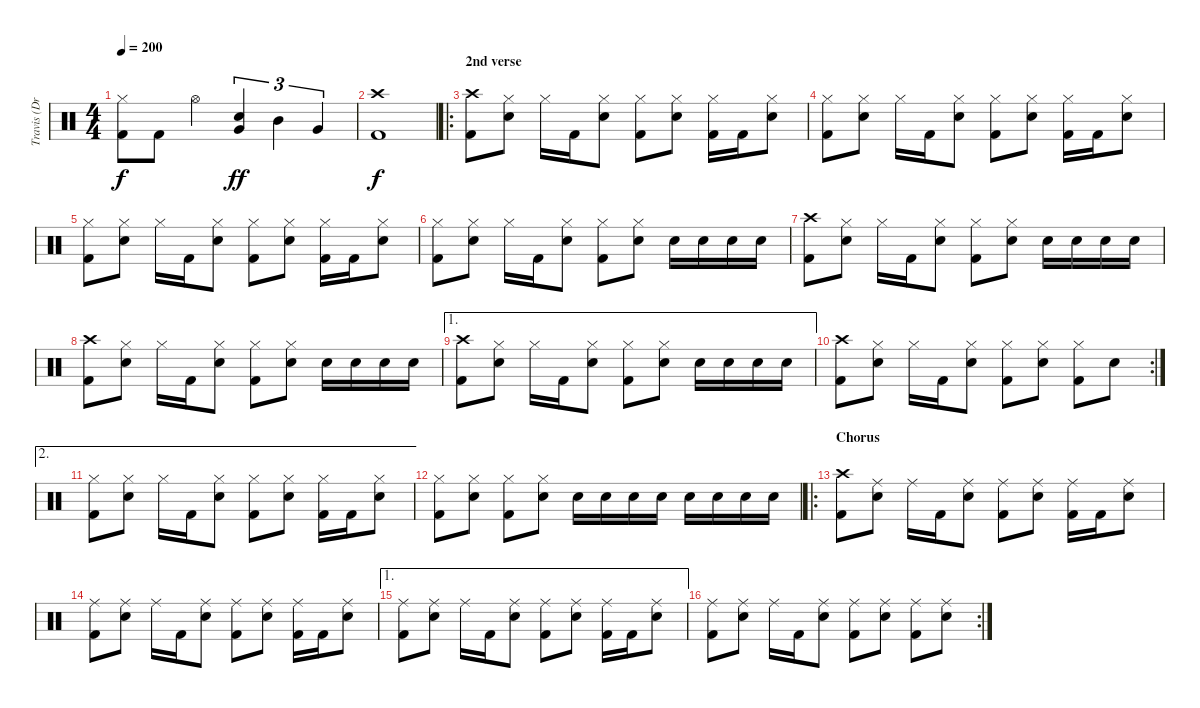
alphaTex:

\track ("Travis (Drums)" "Travis (Dr") {instrument percussion}
\staff {score}
\articulation defaults
\ts (4 4)
\tempo 200
\clef neutral
\ks c
("Hi-Hat (closed)" "Kick (hit) 2").8{dy f} "Kick (hit) 2".8 "Hi-Hat (open)".4 ("Very Low Tom (hit)" "Electric Snare (hit)").4{tu (3 2) dy ff} "Mid Tom (hit)".4{tu (3 2)} "Very Low Tom (hit)".4{tu (3 2)} |
("Crash high (hit)" "Kick (hit) 2").1{dy f} |
\ro
\section ("" "2nd verse")
("Crash high (hit)" "Kick (hit) 2").8 ("Hi-Hat (closed)" "Electric Snare (hit)").8 "Hi-Hat (closed)".16 "Kick (hit) 2".16 ("Hi-Hat (closed)" "Electric Snare (hit)").8 ("Hi-Hat (closed)" "Kick (hit) 2").8 ("Hi-Hat (closed)" "Electric Snare (hit)").8 ("Hi-Hat (closed)" "Kick (hit) 2").16 "Kick (hit) 2".16 ("Hi-Hat (closed)" "Electric Snare (hit)").8 |
("Hi-Hat (closed)" "Kick (hit) 2").8 ("Hi-Hat (closed)" "Electric Snare (hit)").8 "Hi-Hat (closed)".16 "Kick (hit) 2".16 ("Hi-Hat (closed)" "Electric Snare (hit)").8 ("Hi-Hat (closed)" "Kick (hit) 2").8 ("Hi-Hat (closed)" "Electric Snare (hit)").8 ("Hi-Hat (closed)" "Kick (hit) 2").16 "Kick (hit) 2".16 ("Hi-Hat (closed)" "Electric Snare (hit)").8 |
("Hi-Hat (closed)" "Kick (hit) 2").8 ("Hi-Hat (closed)" "Electric Snare (hit)").8 "Hi-Hat (closed)".16 "Kick (hit) 2".16 ("Hi-Hat (closed)" "Electric Snare (hit)").8 ("Hi-Hat (closed)" "Kick (hit) 2").8 ("Hi-Hat (closed)" "Electric Snare (hit)").8 ("Hi-Hat (closed)" "Kick (hit) 2").16 "Kick (hit) 2".16 ("Hi-Hat (closed)" "Electric Snare (hit)").8 |
("Hi-Hat (closed)" "Kick (hit) 2").8 ("Hi-Hat (closed)" "Electric Snare (hit)").8 "Hi-Hat (closed)".16 "Kick (hit) 2".16 ("Hi-Hat (closed)" "Electric Snare (hit)").8 ("Hi-Hat (closed)" "Kick (hit) 2").8 ("Hi-Hat (closed)" "Electric Snare (hit)").8 "Electric Snare (hit)".16 "Electric Snare (hit)".16 "Electric Snare (hit)".16 "Electric Snare (hit)".16 |
("Crash high (hit)" "Kick (hit) 2").8 ("Hi-Hat (closed)" "Electric Snare (hit)").8 "Hi-Hat (closed)".16 "Kick (hit) 2".16 ("Hi-Hat (closed)" "Electric Snare (hit)").8 ("Hi-Hat (closed)" "Kick (hit) 2").8 ("Hi-Hat (closed)" "Electric Snare (hit)").8 "Electric Snare (hit)".16 "Electric Snare (hit)".16 "Electric Snare (hit)".16 "Electric Snare (hit)".16 |
("Crash high (hit)" "Kick (hit) 2").8 ("Hi-Hat (closed)" "Electric Snare (hit)").8 "Hi-Hat (closed)".16 "Kick (hit) 2".16 ("Hi-Hat (closed)" "Electric Snare (hit)").8 ("Hi-Hat (closed)" "Kick (hit) 2").8 ("Hi-Hat (closed)" "Electric Snare (hit)").8 "Electric Snare (hit)".16 "Electric Snare (hit)".16 "Electric Snare (hit)".16 "Electric Snare (hit)".16 |
\ae 1
("Crash high (hit)" "Kick (hit) 2").8 ("Hi-Hat (closed)" "Electric Snare (hit)").8 "Hi-Hat (closed)".16 "Kick (hit) 2".16 ("Hi-Hat (closed)" "Electric Snare (hit)").8 ("Hi-Hat (closed)" "Kick (hit) 2").8 ("Hi-Hat (closed)" "Electric Snare (hit)").8 "Electric Snare (hit)".16 "Electric Snare (hit)".16 "Electric Snare (hit)".16 "Electric Snare (hit)".16 |
\rc 2
("Crash high (hit)" "Kick (hit) 2").8 ("Hi-Hat (closed)" "Electric Snare (hit)").8 "Hi-Hat (closed)".16 "Kick (hit) 2".16 ("Hi-Hat (closed)" "Electric Snare (hit)").8 ("Hi-Hat (closed)" "Kick (hit) 2").8 ("Hi-Hat (closed)" "Electric Snare (hit)").8 ("Hi-Hat (closed)" "Kick (hit) 2").8 "Electric Snare (hit)".8 |
\ae 2
("Hi-Hat (closed)" "Kick (hit) 2").8 ("Hi-Hat (closed)" "Electric Snare (hit)").8 "Hi-Hat (closed)".16 "Kick (hit) 2".16 ("Hi-Hat (closed)" "Electric Snare (hit)").8 ("Hi-Hat (closed)" "Kick (hit) 2").8 ("Hi-Hat (closed)" "Electric Snare (hit)").8 ("Hi-Hat (closed)" "Kick (hit) 2").16 "Kick (hit) 2".16 ("Hi-Hat (closed)" "Electric Snare (hit)").8 |
("Hi-Hat (closed)" "Kick (hit) 2").8 ("Hi-Hat (closed)" "Electric Snare (hit)").8 ("Hi-Hat (closed)" "Kick (hit) 2").8 ("Hi-Hat (closed)" "Electric Snare (hit)").8 "Electric Snare (hit)".16 "Electric Snare (hit)".16 "Electric Snare (hit)".16 "Electric Snare (hit)".16 "Electric Snare (hit)".16 "Electric Snare (hit)".16 "Electric Snare (hit)".16 "Electric Snare (hit)".16 |
\ro
\section ("" "Chorus")
("Crash high (hit)" "Kick (hit) 2").8 ("Ride (middle)" "Electric Snare (hit)").8 "Ride (middle)".16 "Kick (hit) 2".16 ("Ride (middle)" "Electric Snare (hit)").8 ("Ride (middle)" "Kick (hit) 2").8 ("Ride (middle)" "Electric Snare (hit)").8 ("Ride (middle)" "Kick (hit) 2").16 "Kick (hit) 2".16 ("Ride (middle)" "Electric Snare (hit)").8 |
("Ride (middle)" "Kick (hit) 2").8 ("Ride (middle)" "Electric Snare (hit)").8 "Ride (middle)".16 "Kick (hit) 2".16 ("Ride (middle)" "Electric Snare (hit)").8 ("Ride (middle)" "Kick (hit) 2").8 ("Ride (middle)" "Electric Snare (hit)").8 ("Ride (middle)" "Kick (hit) 2").16 "Kick (hit) 2".16 ("Ride (middle)" "Electric Snare (hit)").8 |
\ae 1
("Ride (middle)" "Kick (hit) 2").8 ("Ride (middle)" "Electric Snare (hit)").8 "Ride (middle)".16 "Kick (hit) 2".16 ("Ride (middle)" "Electric Snare (hit)").8 ("Ride (middle)" "Kick (hit) 2").8 ("Ride (middle)" "Electric Snare (hit)").8 ("Ride (middle)" "Kick (hit) 2").16 "Kick (hit) 2".16 ("Ride (middle)" "Electric Snare (hit)").8 |
\rc 2
("Ride (middle)" "Kick (hit) 2").8 ("Ride (middle)" "Electric Snare (hit)").8 "Ride (middle)".16 "Kick (hit) 2".16 ("Ride (middle)" "Electric Snare (hit)").8 ("Ride (middle)" "Kick (hit) 2").8 ("Ride (middle)" "Electric Snare (hit)").8 ("Ride (middle)" "Kick (hit) 2").8 ("Ride (middle)" "Electric Snare (hit)").8
